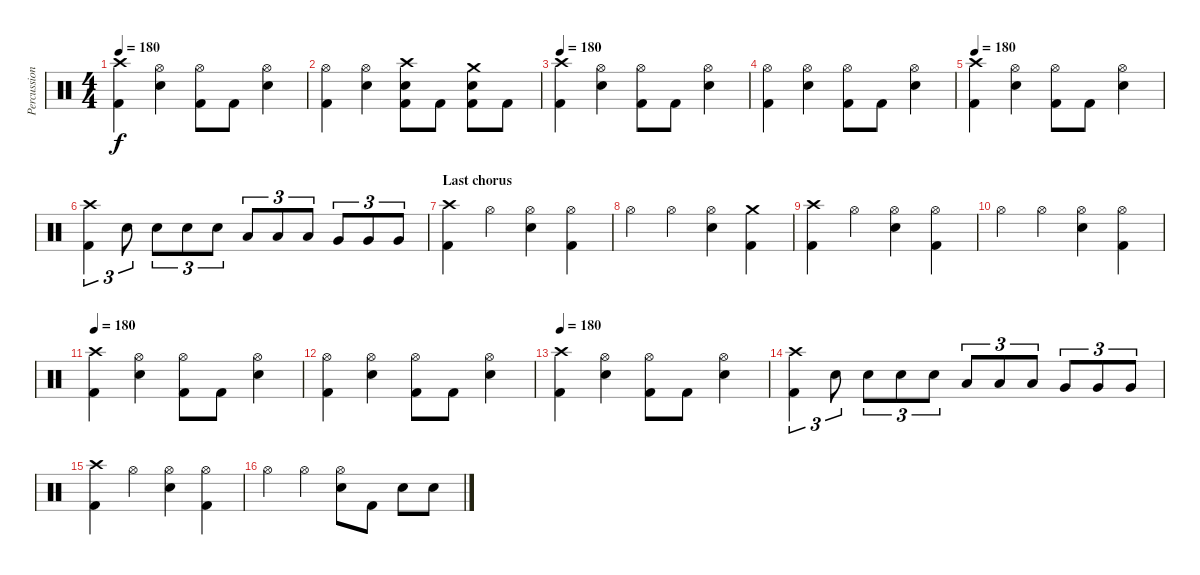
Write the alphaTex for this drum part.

\track ("Percussion" "Percussion") {instrument percussion}
\staff {score}
\articulation defaults
\ts (4 4)
\tempo 180
\clef neutral
\ks c
("Crash high (hit)" "Kick (hit) 2").4{dy f} ("Hi-Hat (open)" "Snare (hit) 2").4 ("Hi-Hat (open)" "Kick (hit) 2").8 "Kick (hit) 2".8 ("Hi-Hat (open)" "Snare (hit) 2").4 |
("Hi-Hat (open)" "Kick (hit) 2").4 ("Hi-Hat (open)" "Snare (hit) 2").4 ("Crash high (hit)" "Snare (hit) 2" "Kick (hit) 2").8 "Kick (hit) 2".8 ("Crash medium (hit)" "Snare (hit) 2" "Kick (hit) 2").8 "Kick (hit) 2".8 |
\tempo 180
("Crash high (hit)" "Kick (hit) 2").4 ("Hi-Hat (open)" "Snare (hit) 2").4 ("Hi-Hat (open)" "Kick (hit) 2").8 "Kick (hit) 2".8 ("Hi-Hat (open)" "Snare (hit) 2").4 |
("Hi-Hat (open)" "Kick (hit) 2").4 ("Hi-Hat (open)" "Snare (hit) 2").4 ("Hi-Hat (open)" "Kick (hit) 2").8 "Kick (hit) 2".8 ("Hi-Hat (open)" "Snare (hit) 2").4 |
\tempo 180
("Crash high (hit)" "Kick (hit) 2").4 ("Hi-Hat (open)" "Snare (hit) 2").4 ("Hi-Hat (open)" "Kick (hit) 2").8 "Kick (hit) 2".8 ("Hi-Hat (open)" "Snare (hit) 2").4 |
("Crash high (hit)" "Kick (hit) 2").4{tu (3 2)} "Snare (hit) 2".8{tu (3 2)} "Snare (hit) 2".8{tu (3 2)} "Snare (hit) 2".8{tu (3 2)} "Snare (hit) 2".8{tu (3 2)} "Low Tom (hit)".8{tu (3 2)} "Low Tom (hit)".8{tu (3 2)} "Low Tom (hit)".8{tu (3 2)} "Very Low Tom (hit)".8{tu (3 2)} "Very Low Tom (hit)".8{tu (3 2)} "Very Low Tom (hit)".8{tu (3 2)} |
\section ("" "Last chorus")
("Crash high (hit)" "Kick (hit) 2").4 "Hi-Hat (open)".4 ("Hi-Hat (open)" "Snare (hit) 2").4 ("Hi-Hat (open)" "Kick (hit) 2").4 |
"Hi-Hat (open)".4 "Hi-Hat (open)".4 ("Hi-Hat (open)" "Snare (hit) 2").4 ("Crash medium (hit)" "Kick (hit) 2").4 |
("Crash high (hit)" "Kick (hit) 2").4 "Hi-Hat (open)".4 ("Hi-Hat (open)" "Snare (hit) 2").4 ("Hi-Hat (open)" "Kick (hit) 2").4 |
"Hi-Hat (open)".4 "Hi-Hat (open)".4 ("Hi-Hat (open)" "Snare (hit) 2").4 ("Hi-Hat (open)" "Kick (hit) 2").4 |
\tempo 180
("Crash high (hit)" "Kick (hit) 2").4 ("Hi-Hat (open)" "Snare (hit) 2").4 ("Hi-Hat (open)" "Kick (hit) 2").8 "Kick (hit) 2".8 ("Hi-Hat (open)" "Snare (hit) 2").4 |
("Hi-Hat (open)" "Kick (hit) 2").4 ("Hi-Hat (open)" "Snare (hit) 2").4 ("Hi-Hat (open)" "Kick (hit) 2").8 "Kick (hit) 2".8 ("Hi-Hat (open)" "Snare (hit) 2").4 |
\tempo 180
("Crash high (hit)" "Kick (hit) 2").4 ("Hi-Hat (open)" "Snare (hit) 2").4 ("Hi-Hat (open)" "Kick (hit) 2").8 "Kick (hit) 2".8 ("Hi-Hat (open)" "Snare (hit) 2").4 |
("Crash high (hit)" "Kick (hit) 2").4{tu (3 2)} "Snare (hit) 2".8{tu (3 2)} "Snare (hit) 2".8{tu (3 2)} "Snare (hit) 2".8{tu (3 2)} "Snare (hit) 2".8{tu (3 2)} "Low Tom (hit)".8{tu (3 2)} "Low Tom (hit)".8{tu (3 2)} "Low Tom (hit)".8{tu (3 2)} "Very Low Tom (hit)".8{tu (3 2)} "Very Low Tom (hit)".8{tu (3 2)} "Very Low Tom (hit)".8{tu (3 2)} |
("Crash high (hit)" "Kick (hit) 2").4 "Hi-Hat (open)".4 ("Hi-Hat (open)" "Snare (hit) 2").4 ("Hi-Hat (open)" "Kick (hit) 2").4 |
"Hi-Hat (open)".4 "Hi-Hat (open)".4 ("Hi-Hat (open)" "Snare (hit) 2").8 "Kick (hit) 2".8 "Snare (hit) 2".8 "Snare (hit) 2".8
